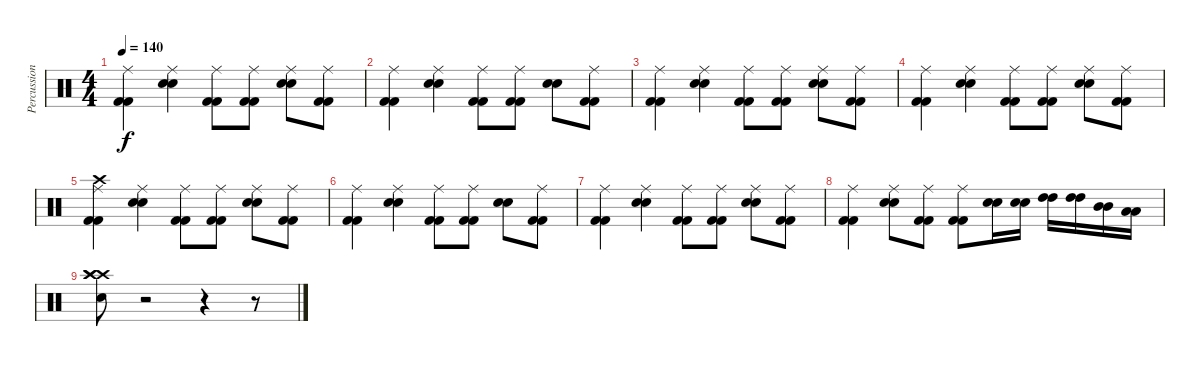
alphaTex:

\track ("Percussion" "Percussion") {instrument percussion}
\staff {score}
\articulation defaults
\ts (4 4)
\tempo 140
\clef neutral
\ks c
("Kick (hit) 2" "Kick (hit) 2" "Ride (middle)").4{dy f} ("Snare (hit) 2" "Snare (hit) 2" "Ride (middle)").4 ("Kick (hit) 2" "Kick (hit) 2" "Ride (middle)").8 ("Kick (hit) 2" "Kick (hit) 2" "Ride (middle)").8 ("Snare (hit) 2" "Snare (hit) 2" "Ride (middle)").8 ("Kick (hit) 2" "Kick (hit) 2" "Ride (middle)").8 |
("Kick (hit) 2" "Kick (hit) 2" "Ride (middle)").4 ("Snare (hit) 2" "Snare (hit) 2" "Ride (middle)").4 ("Kick (hit) 2" "Kick (hit) 2" "Ride (middle)").8 ("Kick (hit) 2" "Kick (hit) 2" "Ride (middle)").8 ("Snare (hit) 2" "Snare (hit) 2").8 ("Kick (hit) 2" "Kick (hit) 2" "Ride (middle)").8 |
("Kick (hit) 2" "Kick (hit) 2" "Ride (middle)").4 ("Snare (hit) 2" "Snare (hit) 2" "Ride (middle)").4 ("Kick (hit) 2" "Kick (hit) 2" "Ride (middle)").8 ("Kick (hit) 2" "Kick (hit) 2" "Ride (middle)").8 ("Snare (hit) 2" "Snare (hit) 2" "Ride (middle)").8 ("Kick (hit) 2" "Kick (hit) 2" "Ride (middle)").8 |
("Kick (hit) 2" "Kick (hit) 2" "Ride (middle)").4 ("Snare (hit) 2" "Snare (hit) 2" "Ride (middle)").4 ("Kick (hit) 2" "Kick (hit) 2" "Ride (middle)").8 ("Kick (hit) 2" "Kick (hit) 2" "Ride (middle)").8 ("Snare (hit) 2" "Snare (hit) 2" "Ride (middle)").8 ("Kick (hit) 2" "Kick (hit) 2" "Ride (middle)").8 |
("Kick (hit) 2" "Kick (hit) 2" "Ride (middle)" "Crash high (hit)").4 ("Snare (hit) 2" "Snare (hit) 2" "Ride (middle)").4 ("Kick (hit) 2" "Kick (hit) 2" "Ride (middle)").8 ("Kick (hit) 2" "Kick (hit) 2" "Ride (middle)").8 ("Snare (hit) 2" "Snare (hit) 2" "Ride (middle)").8 ("Kick (hit) 2" "Kick (hit) 2" "Ride (middle)").8 |
("Kick (hit) 2" "Kick (hit) 2" "Ride (middle)").4 ("Snare (hit) 2" "Snare (hit) 2" "Ride (middle)").4 ("Kick (hit) 2" "Kick (hit) 2" "Ride (middle)").8 ("Kick (hit) 2" "Kick (hit) 2" "Ride (middle)").8 ("Snare (hit) 2" "Snare (hit) 2").8 ("Kick (hit) 2" "Kick (hit) 2" "Ride (middle)").8 |
("Kick (hit) 2" "Kick (hit) 2" "Ride (middle)").4 ("Snare (hit) 2" "Snare (hit) 2" "Ride (middle)").4 ("Kick (hit) 2" "Kick (hit) 2" "Ride (middle)").8 ("Kick (hit) 2" "Kick (hit) 2" "Ride (middle)").8 ("Snare (hit) 2" "Snare (hit) 2" "Ride (middle)").8 ("Kick (hit) 2" "Kick (hit) 2" "Ride (middle)").8 |
("Kick (hit) 2" "Kick (hit) 2" "Ride (middle)").4 ("Snare (hit) 2" "Snare (hit) 2" "Ride (middle)").8 ("Kick (hit) 2" "Kick (hit) 2" "Ride (middle)").8 ("Kick (hit) 2" "Kick (hit) 2" "Ride (middle)").8 ("Snare (hit) 2" "Snare (hit) 2").16 ("Snare (hit) 2" "Snare (hit) 2").16 ("High Tom (hit)" "High Tom (hit)").16 ("High Tom (hit)" "High Tom (hit)").16 ("Mid Tom (hit)" "Mid Tom (hit)").16 ("Low Tom (hit)" "Low Tom (hit)").16 |
("Snare (hit) 2" "Crash high (hit)" "Crash high (hit)" "Crash high (hit)").8 r.2 r.4 r.8
